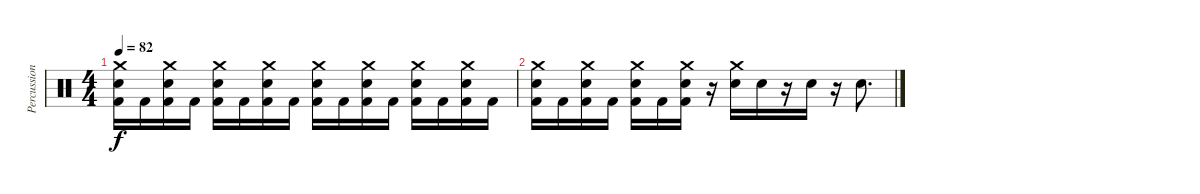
\track ("Percussion" "Percussion") {instrument percussion}
\staff {score}
\articulation defaults
\ts (4 4)
\tempo 82
\clef neutral
\ks c
("Crash medium (hit)" "Snare (hit) 2" "Kick (hit) 2").16{dy f} "Kick (hit) 2".16 ("Crash medium (hit)" "Snare (hit) 2" "Kick (hit) 2").16 "Kick (hit) 2".16 ("Crash medium (hit)" "Snare (hit) 2" "Kick (hit) 2").16 "Kick (hit) 2".16 ("Crash medium (hit)" "Snare (hit) 2" "Kick (hit) 2").16 "Kick (hit) 2".16 ("Crash medium (hit)" "Snare (hit) 2" "Kick (hit) 2").16 "Kick (hit) 2".16 ("Crash medium (hit)" "Snare (hit) 2" "Kick (hit) 2").16 "Kick (hit) 2".16 ("Crash medium (hit)" "Snare (hit) 2" "Kick (hit) 2").16 "Kick (hit) 2".16 ("Crash medium (hit)" "Snare (hit) 2" "Kick (hit) 2").16 "Kick (hit) 2".16 |
("Crash medium (hit)" "Snare (hit) 2" "Kick (hit) 2").16 "Kick (hit) 2".16 ("Crash medium (hit)" "Snare (hit) 2" "Kick (hit) 2").16 "Kick (hit) 2".16 ("Crash medium (hit)" "Snare (hit) 2" "Kick (hit) 2").16 "Kick (hit) 2".16 ("Crash medium (hit)" "Snare (hit) 2" "Kick (hit) 2").16 r.16 ("Crash medium (hit)" "Snare (hit) 2").16 "Snare (hit) 2".16 r.16 "Snare (hit) 2".16 r.16 "Snare (hit) 2".8{d}
